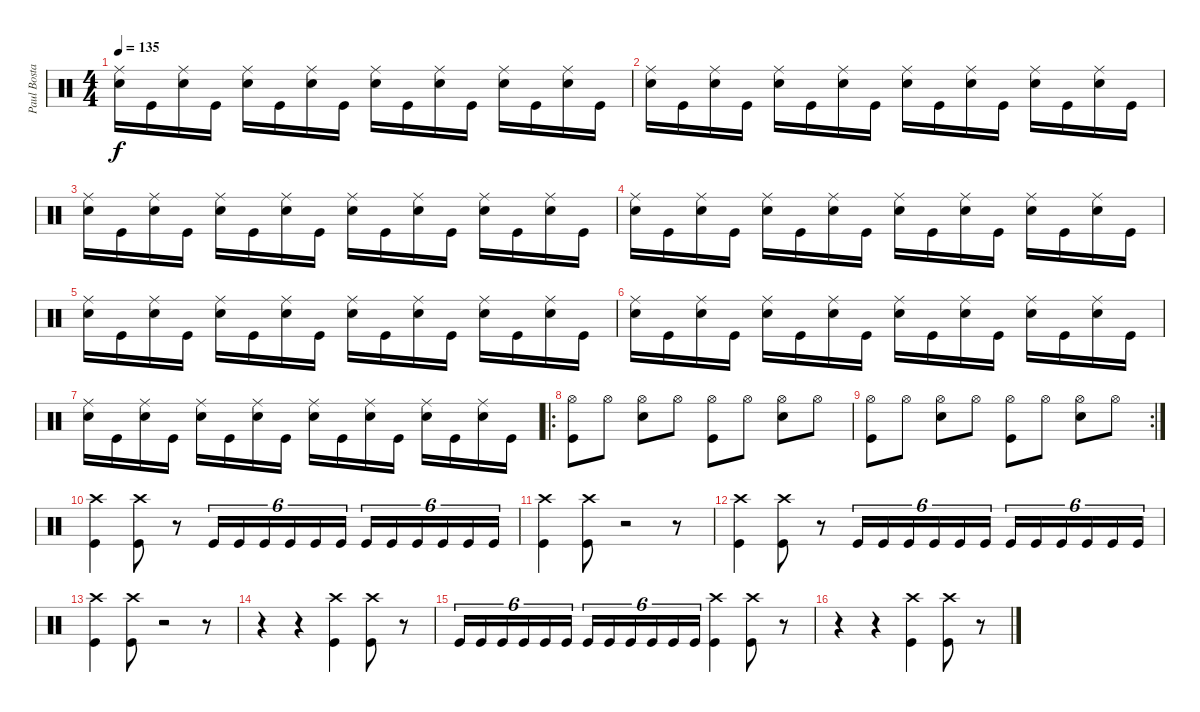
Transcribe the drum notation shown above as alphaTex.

\track ("Paul Bostaph" "Paul Bosta") {instrument percussion}
\staff {score}
\articulation defaults
\ts (4 4)
\tempo 135
\clef neutral
\ks c
("Ride (middle)" "Snare (hit) 2").16{dy f} "Kick (hit)".16 ("Ride (middle)" "Snare (hit) 2").16 "Kick (hit)".16 ("Ride (middle)" "Snare (hit) 2").16 "Kick (hit)".16 ("Ride (middle)" "Snare (hit) 2").16 "Kick (hit)".16 ("Ride (middle)" "Snare (hit) 2").16 "Kick (hit)".16 ("Ride (middle)" "Snare (hit) 2").16 "Kick (hit)".16 ("Ride (middle)" "Snare (hit) 2").16 "Kick (hit)".16 ("Ride (middle)" "Snare (hit) 2").16 "Kick (hit)".16 |
("Ride (middle)" "Snare (hit) 2").16 "Kick (hit)".16 ("Ride (middle)" "Snare (hit) 2").16 "Kick (hit)".16 ("Ride (middle)" "Snare (hit) 2").16 "Kick (hit)".16 ("Ride (middle)" "Snare (hit) 2").16 "Kick (hit)".16 ("Ride (middle)" "Snare (hit) 2").16 "Kick (hit)".16 ("Ride (middle)" "Snare (hit) 2").16 "Kick (hit)".16 ("Ride (middle)" "Snare (hit) 2").16 "Kick (hit)".16 ("Ride (middle)" "Snare (hit) 2").16 "Kick (hit)".16 |
("Ride (middle)" "Snare (hit) 2").16 "Kick (hit)".16 ("Ride (middle)" "Snare (hit) 2").16 "Kick (hit)".16 ("Ride (middle)" "Snare (hit) 2").16 "Kick (hit)".16 ("Ride (middle)" "Snare (hit) 2").16 "Kick (hit)".16 ("Ride (middle)" "Snare (hit) 2").16 "Kick (hit)".16 ("Ride (middle)" "Snare (hit) 2").16 "Kick (hit)".16 ("Ride (middle)" "Snare (hit) 2").16 "Kick (hit)".16 ("Ride (middle)" "Snare (hit) 2").16 "Kick (hit)".16 |
("Ride (middle)" "Snare (hit) 2").16 "Kick (hit)".16 ("Ride (middle)" "Snare (hit) 2").16 "Kick (hit)".16 ("Ride (middle)" "Snare (hit) 2").16 "Kick (hit)".16 ("Ride (middle)" "Snare (hit) 2").16 "Kick (hit)".16 ("Ride (middle)" "Snare (hit) 2").16 "Kick (hit)".16 ("Ride (middle)" "Snare (hit) 2").16 "Kick (hit)".16 ("Ride (middle)" "Snare (hit) 2").16 "Kick (hit)".16 ("Ride (middle)" "Snare (hit) 2").16 "Kick (hit)".16 |
("Ride (middle)" "Snare (hit) 2").16 "Kick (hit)".16 ("Ride (middle)" "Snare (hit) 2").16 "Kick (hit)".16 ("Ride (middle)" "Snare (hit) 2").16 "Kick (hit)".16 ("Ride (middle)" "Snare (hit) 2").16 "Kick (hit)".16 ("Ride (middle)" "Snare (hit) 2").16 "Kick (hit)".16 ("Ride (middle)" "Snare (hit) 2").16 "Kick (hit)".16 ("Ride (middle)" "Snare (hit) 2").16 "Kick (hit)".16 ("Ride (middle)" "Snare (hit) 2").16 "Kick (hit)".16 |
("Ride (middle)" "Snare (hit) 2").16 "Kick (hit)".16 ("Ride (middle)" "Snare (hit) 2").16 "Kick (hit)".16 ("Ride (middle)" "Snare (hit) 2").16 "Kick (hit)".16 ("Ride (middle)" "Snare (hit) 2").16 "Kick (hit)".16 ("Ride (middle)" "Snare (hit) 2").16 "Kick (hit)".16 ("Ride (middle)" "Snare (hit) 2").16 "Kick (hit)".16 ("Ride (middle)" "Snare (hit) 2").16 "Kick (hit)".16 ("Ride (middle)" "Snare (hit) 2").16 "Kick (hit)".16 |
("Ride (middle)" "Snare (hit) 2").16 "Kick (hit)".16 ("Ride (middle)" "Snare (hit) 2").16 "Kick (hit)".16 ("Ride (middle)" "Snare (hit) 2").16 "Kick (hit)".16 ("Ride (middle)" "Snare (hit) 2").16 "Kick (hit)".16 ("Ride (middle)" "Snare (hit) 2").16 "Kick (hit)".16 ("Ride (middle)" "Snare (hit) 2").16 "Kick (hit)".16 ("Ride (middle)" "Snare (hit) 2").16 "Kick (hit)".16 ("Ride (middle)" "Snare (hit) 2").16 "Kick (hit)".16 |
\ro
("Kick (hit)" "Hi-Hat (open)").8 "Hi-Hat (open)".8 ("Snare (hit) 2" "Hi-Hat (open)").8 "Hi-Hat (open)".8 ("Kick (hit)" "Hi-Hat (open)").8 "Hi-Hat (open)".8 ("Snare (hit) 2" "Hi-Hat (open)").8 "Hi-Hat (open)".8 |
\rc 2
("Kick (hit)" "Hi-Hat (open)").8 "Hi-Hat (open)".8 ("Snare (hit) 2" "Hi-Hat (open)").8 "Hi-Hat (open)".8 ("Kick (hit)" "Hi-Hat (open)").8 "Hi-Hat (open)".8 ("Snare (hit) 2" "Hi-Hat (open)").8 "Hi-Hat (open)".8 |
("Kick (hit)" "Crash high (hit)").4 ("Crash high (hit)" "Kick (hit)").8 r.8 "Kick (hit)".16{tu (6 4)} "Kick (hit)".16{tu (6 4)} "Kick (hit)".16{tu (6 4)} "Kick (hit)".16{tu (6 4)} "Kick (hit)".16{tu (6 4)} "Kick (hit)".16{tu (6 4)} "Kick (hit)".16{tu (6 4)} "Kick (hit)".16{tu (6 4)} "Kick (hit)".16{tu (6 4)} "Kick (hit)".16{tu (6 4)} "Kick (hit)".16{tu (6 4)} "Kick (hit)".16{tu (6 4)} |
("Kick (hit)" "Crash high (hit)").4 ("Kick (hit)" "Crash high (hit)").8 r.2 r.8 |
("Kick (hit)" "Crash high (hit)").4 ("Crash high (hit)" "Kick (hit)").8 r.8 "Kick (hit)".16{tu (6 4)} "Kick (hit)".16{tu (6 4)} "Kick (hit)".16{tu (6 4)} "Kick (hit)".16{tu (6 4)} "Kick (hit)".16{tu (6 4)} "Kick (hit)".16{tu (6 4)} "Kick (hit)".16{tu (6 4)} "Kick (hit)".16{tu (6 4)} "Kick (hit)".16{tu (6 4)} "Kick (hit)".16{tu (6 4)} "Kick (hit)".16{tu (6 4)} "Kick (hit)".16{tu (6 4)} |
("Kick (hit)" "Crash high (hit)").4 ("Kick (hit)" "Crash high (hit)").8 r.2 r.8 |
r.4 r.4 ("Crash high (hit)" "Kick (hit)").4 ("Crash high (hit)" "Kick (hit)").8 r.8 |
"Kick (hit)".16{tu (6 4)} "Kick (hit)".16{tu (6 4)} "Kick (hit)".16{tu (6 4)} "Kick (hit)".16{tu (6 4)} "Kick (hit)".16{tu (6 4)} "Kick (hit)".16{tu (6 4)} "Kick (hit)".16{tu (6 4)} "Kick (hit)".16{tu (6 4)} "Kick (hit)".16{tu (6 4)} "Kick (hit)".16{tu (6 4)} "Kick (hit)".16{tu (6 4)} "Kick (hit)".16{tu (6 4)} ("Crash high (hit)" "Kick (hit)").4 ("Kick (hit)" "Crash high (hit)").8 r.8 |
r.4 r.4 ("Crash high (hit)" "Kick (hit)").4 ("Crash high (hit)" "Kick (hit)").8 r.8
